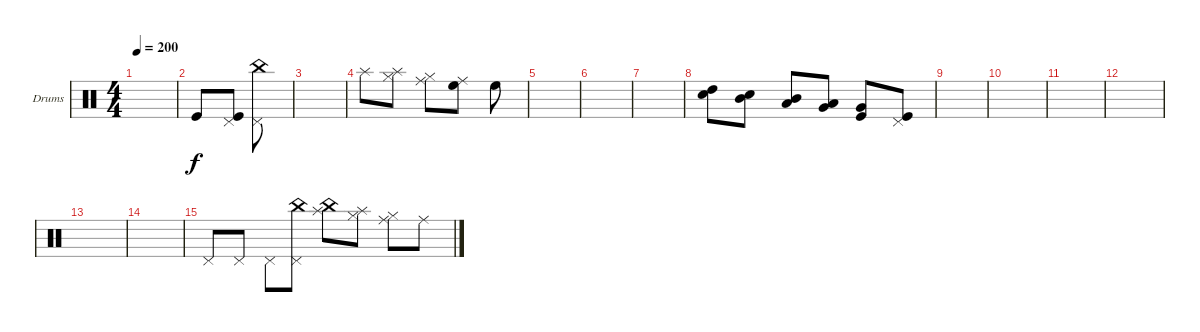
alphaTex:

\defaultSystemsLayout 4
\bracketExtendMode groupsimilarinstruments
\firstSystemTrackNameOrientation horizontal
\otherSystemsTrackNameOrientation horizontal
\track ("Drumkit" "Drums") {instrument percussion}
\staff {score}
\articulation defaults
\ts (4 4)
\tempo 200
\clef neutral
\scale
0.333333
\ks c
|
\scale
0.333333 "Kick (hit)".8 ("Kick (hit)" "Pedal Hi-Hat (hit)").8 ("Pedal Hi-Hat (hit)" "China (hit)").8 |
\scale
0.333333 |
\scale
0.333333 "Splash (hit)".8 ("Splash (hit)" "Hi-Hat (closed)").8 ("Hi-Hat (closed)" "Ride (middle)").8 ("Ride (middle)" "High Floor Tom (hit)").8 "High Floor Tom (hit)".8 |
\scale
0.333333 |
\scale
0.333333 |
\scale
0.333333 |
\scale
0.333333 ("High Tom (hit)" "Snare (hit) 2").8 ("Snare (hit) 2" "Mid Tom (hit)").8 ("Mid Tom (hit)" "Low Tom (hit)").8 ("Low Tom (hit)" "Very Low Tom (hit)").8 ("Very Low Tom (hit)" "Kick (hit)").8 ("Kick (hit)" "Pedal Hi-Hat (hit)").8 |
\scale
0.333333 |
\scale
0.333333 |
\scale
0.333333 |
\scale
0.333333 |
\scale
0.333333 |
\scale
0.333333 |
\scale
0.333333 "Pedal Hi-Hat (hit)".8 "Pedal Hi-Hat (hit)".8 "Pedal Hi-Hat (hit)".8 ("Pedal Hi-Hat (hit)" "China (hit)").8 ("China (hit)" "Splash (hit)").8 ("Splash (hit)" "Hi-Hat (closed)").8 ("Hi-Hat (closed)" "Ride (middle)").8 "Ride (middle)".8 |
\scale
0.333333
